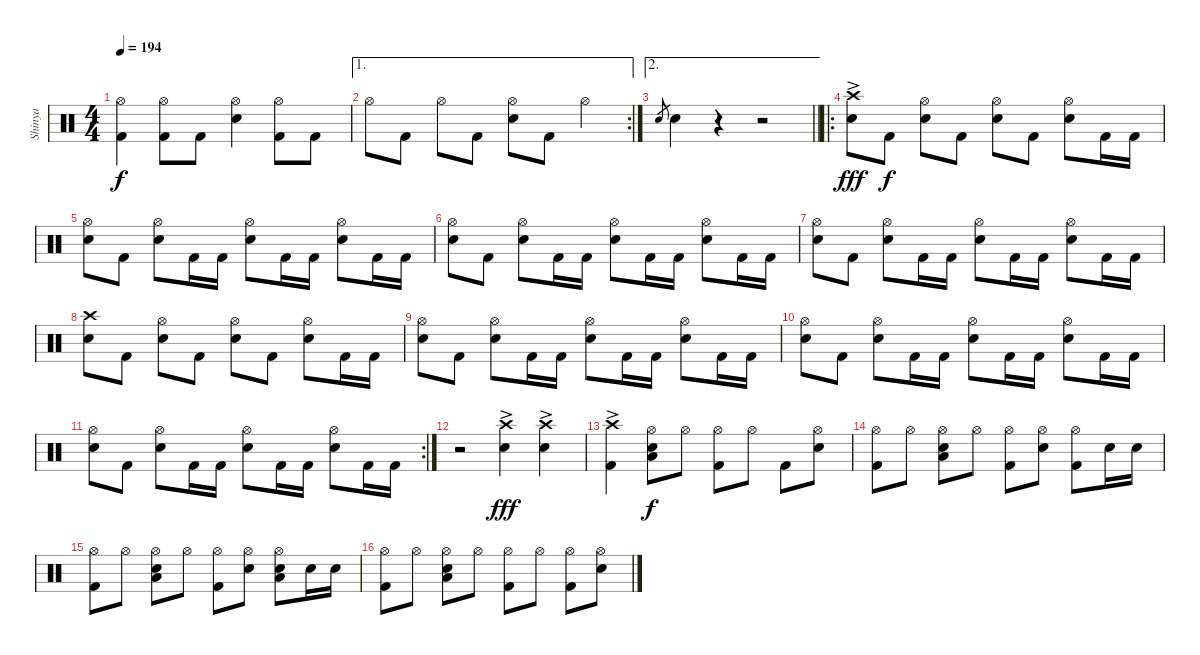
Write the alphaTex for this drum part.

\track ("Shinya" "Shinya") {instrument percussion}
\staff {score}
\articulation defaults
\ts (4 4)
\tempo 194
\clef neutral
\ks c
("Hi-Hat (open)" "Kick (hit) 2").4{dy f} ("Hi-Hat (open)" "Kick (hit) 2").8 "Kick (hit) 2".8 ("Hi-Hat (open)" "Snare (hit) 2").4 ("Hi-Hat (open)" "Kick (hit) 2").8 "Kick (hit) 2".8 |
\ae 1
\rc 2 "Hi-Hat (open)".8 "Kick (hit) 2".8 "Hi-Hat (open)".8 "Kick (hit) 2".8
("Hi-Hat (open)" "Snare (hit) 2").8 "Kick (hit) 2".8 "Hi-Hat (open)".4 |
\ae 2
\barLineRight lightlight "Snare (hit) 2".8{gr} "Snare (hit) 2".4
r.4 r.2 |
\ro
("Crash high (hit)"{ac} "Snare (hit) 2").8{dy fff} "Kick (hit) 2".8{dy f} ("Hi-Hat (open)" "Snare (hit) 2").8 "Kick (hit) 2".8 ("Hi-Hat (open)" "Snare (hit) 2").8 "Kick (hit) 2".8 ("Hi-Hat (open)" "Snare (hit) 2").8 "Kick (hit) 2".16 "Kick (hit) 2".16 |
("Hi-Hat (open)" "Snare (hit) 2").8 "Kick (hit) 2".8 ("Hi-Hat (open)" "Snare (hit) 2").8 "Kick (hit) 2".16 "Kick (hit) 2".16 ("Hi-Hat (open)" "Snare (hit) 2").8 "Kick (hit) 2".16 "Kick (hit) 2".16 ("Hi-Hat (open)" "Snare (hit) 2").8 "Kick (hit) 2".16 "Kick (hit) 2".16 |
("Hi-Hat (open)" "Snare (hit) 2").8 "Kick (hit) 2".8 ("Hi-Hat (open)" "Snare (hit) 2").8 "Kick (hit) 2".16 "Kick (hit) 2".16 ("Hi-Hat (open)" "Snare (hit) 2").8 "Kick (hit) 2".16 "Kick (hit) 2".16 ("Hi-Hat (open)" "Snare (hit) 2").8 "Kick (hit) 2".16 "Kick (hit) 2".16 |
("Hi-Hat (open)" "Snare (hit) 2").8 "Kick (hit) 2".8 ("Hi-Hat (open)" "Snare (hit) 2").8 "Kick (hit) 2".16 "Kick (hit) 2".16 ("Hi-Hat (open)" "Snare (hit) 2").8 "Kick (hit) 2".16 "Kick (hit) 2".16 ("Hi-Hat (open)" "Snare (hit) 2").8 "Kick (hit) 2".16 "Kick (hit) 2".16 |
("Crash high (hit)" "Snare (hit) 2").8 "Kick (hit) 2".8 ("Hi-Hat (open)" "Snare (hit) 2").8 "Kick (hit) 2".8 ("Hi-Hat (open)" "Snare (hit) 2").8 "Kick (hit) 2".8 ("Hi-Hat (open)" "Snare (hit) 2").8 "Kick (hit) 2".16 "Kick (hit) 2".16 |
("Hi-Hat (open)" "Snare (hit) 2").8 "Kick (hit) 2".8 ("Hi-Hat (open)" "Snare (hit) 2").8 "Kick (hit) 2".16 "Kick (hit) 2".16 ("Hi-Hat (open)" "Snare (hit) 2").8 "Kick (hit) 2".16 "Kick (hit) 2".16 ("Hi-Hat (open)" "Snare (hit) 2").8 "Kick (hit) 2".16 "Kick (hit) 2".16 |
("Hi-Hat (open)" "Snare (hit) 2").8 "Kick (hit) 2".8 ("Hi-Hat (open)" "Snare (hit) 2").8 "Kick (hit) 2".16 "Kick (hit) 2".16 ("Hi-Hat (open)" "Snare (hit) 2").8 "Kick (hit) 2".16 "Kick (hit) 2".16 ("Hi-Hat (open)" "Snare (hit) 2").8 "Kick (hit) 2".16 "Kick (hit) 2".16 |
\rc 2
("Hi-Hat (open)" "Snare (hit) 2").8 "Kick (hit) 2".8 ("Hi-Hat (open)" "Snare (hit) 2").8 "Kick (hit) 2".16 "Kick (hit) 2".16 ("Hi-Hat (open)" "Snare (hit) 2").8 "Kick (hit) 2".16 "Kick (hit) 2".16 ("Hi-Hat (open)" "Snare (hit) 2").8 "Kick (hit) 2".16 "Kick (hit) 2".16 |
r.2 ("Crash high (hit)"{ac} "Snare (hit) 2").4{dy fff} ("Crash high (hit)"{ac} "Snare (hit) 2").4 |
("Crash high (hit)"{ac} "Kick (hit) 2").4 ("Hi-Hat (open)" "Snare (hit) 2" "Low Floor Tom (hit)").8{dy f} "Hi-Hat (open)".8 ("Hi-Hat (open)" "Kick (hit) 2").8 "Hi-Hat (open)".8 "Kick (hit) 2".8 ("Hi-Hat (open)" "Snare (hit) 2").8 |
("Hi-Hat (open)" "Kick (hit) 2").8 "Hi-Hat (open)".8 ("Hi-Hat (open)" "Snare (hit) 2" "Low Floor Tom (hit)").8 "Hi-Hat (open)".8 ("Hi-Hat (open)" "Kick (hit) 2").8 ("Hi-Hat (open)" "Snare (hit) 2").8 ("Hi-Hat (open)" "Kick (hit) 2").8 "Snare (hit) 2".16 "Snare (hit) 2".16 |
("Hi-Hat (open)" "Kick (hit) 2").8 "Hi-Hat (open)".8 ("Hi-Hat (open)" "Snare (hit) 2" "Low Floor Tom (hit)").8 "Hi-Hat (open)".8 ("Hi-Hat (open)" "Kick (hit) 2").8 ("Hi-Hat (open)" "Snare (hit) 2").8 ("Hi-Hat (open)" "Snare (hit) 2" "Low Floor Tom (hit)").8 "Snare (hit) 2".16 "Snare (hit) 2".16 |
("Hi-Hat (open)" "Kick (hit) 2").8 "Hi-Hat (open)".8 ("Hi-Hat (open)" "Snare (hit) 2" "Low Floor Tom (hit)").8 "Hi-Hat (open)".8 ("Hi-Hat (open)" "Kick (hit) 2").8 "Hi-Hat (open)".8 ("Hi-Hat (open)" "Kick (hit) 2").8 ("Hi-Hat (open)" "Snare (hit) 2").8
